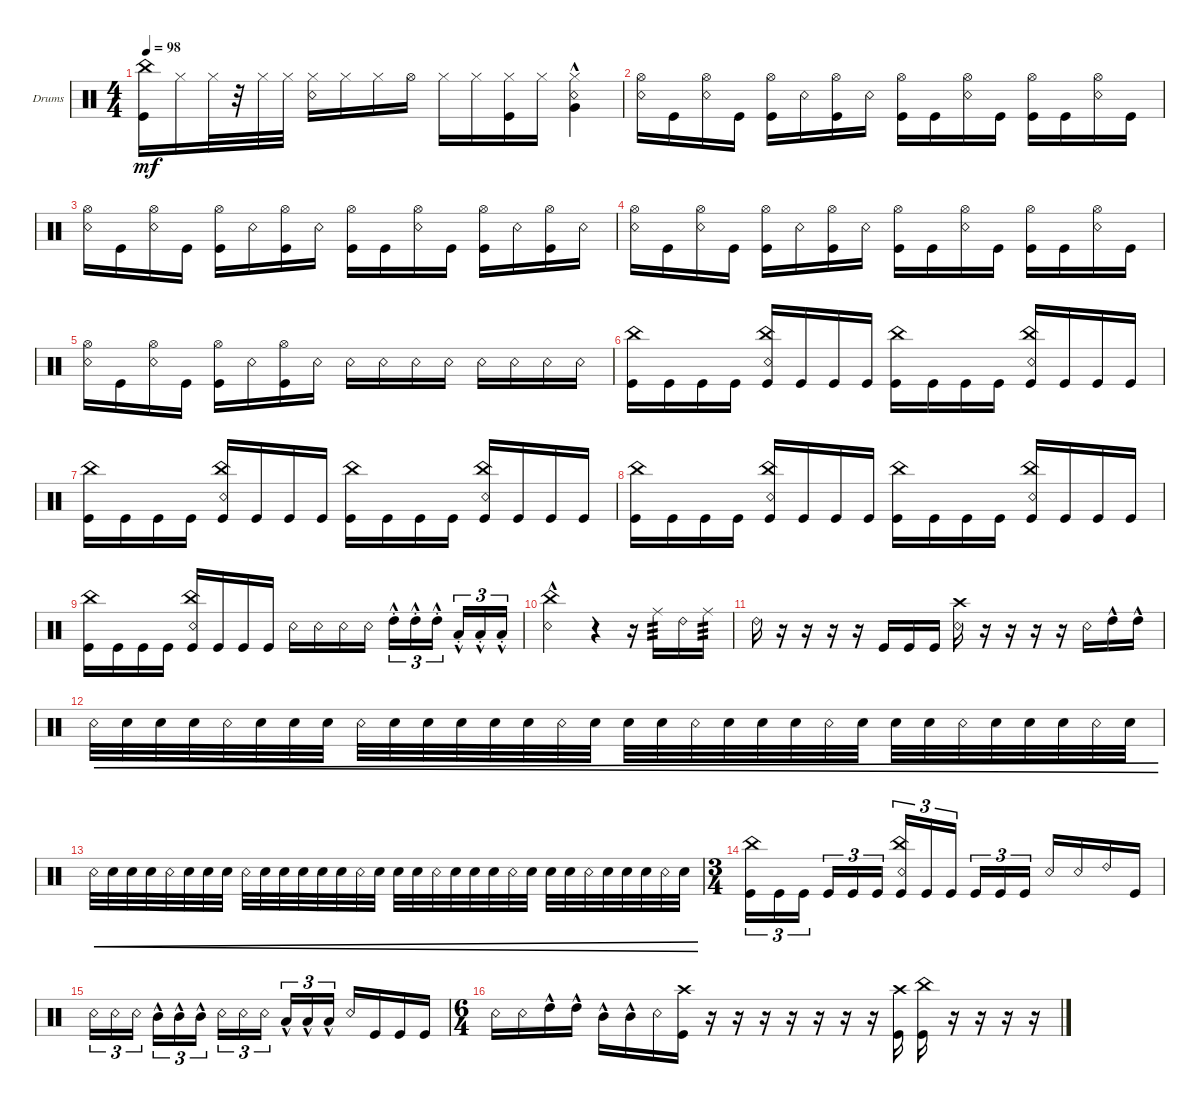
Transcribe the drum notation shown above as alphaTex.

\defaultSystemsLayout 4
\bracketExtendMode groupsimilarinstruments
\firstSystemTrackNameOrientation horizontal
\otherSystemsTrackNameOrientation horizontal
\track ("Drumkit" "Drums") {instrument percussion}
\staff {score}
\articulation defaults
\ts (4 4)
\tempo 98
\clef neutral
\scale
0.333333
\ks c
("Kick (hit)" "China (hit)").16{dy mf} "Hi-Hat (closed)".16 "Hi-Hat (closed)".32 r.32 "Hi-Hat (closed)".32 "Hi-Hat (closed)".32 ("Hi-Hat (closed)" "Snare (rim shot)").16 "Hi-Hat (closed)".16 "Hi-Hat (closed)".16 "Hi-Hat (open)".16 "Hi-Hat (closed)".16 "Hi-Hat (closed)".16 ("Hi-Hat (closed)" "Kick (hit)").16 "Hi-Hat (closed)".16 ("Hi-Hat (closed)" "Snare (rim shot)" "Very Low Tom (hit)"{hac}).4 |
\scale
0.333333 ("Snare (rim shot)" "Hi-Hat (open)").16 "Kick (hit)".16 ("Snare (rim shot)" "Hi-Hat (open)").16 "Kick (hit)".16 ("Kick (hit)" "Hi-Hat (open)").16 "Snare (rim shot)".16 ("Kick (hit)" "Hi-Hat (open)").16 "Snare (rim shot)".16 ("Kick (hit)" "Hi-Hat (open)").16 "Kick (hit)".16 ("Snare (rim shot)" "Hi-Hat (open)").16 "Kick (hit)".16 ("Kick (hit)" "Hi-Hat (open)").16 "Kick (hit)".16 ("Snare (rim shot)" "Hi-Hat (open)").16 "Kick (hit)".16 |
\scale
0.333333 ("Snare (rim shot)" "Hi-Hat (open)").16 "Kick (hit)".16 ("Snare (rim shot)" "Hi-Hat (open)").16 "Kick (hit)".16 ("Kick (hit)" "Hi-Hat (open)").16 "Snare (rim shot)".16 ("Kick (hit)" "Hi-Hat (open)").16 "Snare (rim shot)".16 ("Kick (hit)" "Hi-Hat (open)").16 "Kick (hit)".16 ("Snare (rim shot)" "Hi-Hat (open)").16 "Kick (hit)".16 ("Kick (hit)" "Hi-Hat (open)").16 "Snare (rim shot)".16 ("Kick (hit)" "Hi-Hat (open)").16 "Snare (rim shot)".16 |
\scale
0.333333 ("Snare (rim shot)" "Hi-Hat (open)").16 "Kick (hit)".16 ("Snare (rim shot)" "Hi-Hat (open)").16 "Kick (hit)".16 ("Kick (hit)" "Hi-Hat (open)").16 "Snare (rim shot)".16 ("Kick (hit)" "Hi-Hat (open)").16 "Snare (rim shot)".16 ("Kick (hit)" "Hi-Hat (open)").16 "Kick (hit)".16 ("Snare (rim shot)" "Hi-Hat (open)").16 "Kick (hit)".16 ("Kick (hit)" "Hi-Hat (open)").16 "Kick (hit)".16 ("Snare (rim shot)" "Hi-Hat (open)").16 "Kick (hit)".16 |
\scale
0.333333 ("Snare (rim shot)" "Hi-Hat (open)").16 "Kick (hit)".16 ("Snare (rim shot)" "Hi-Hat (open)").16 "Kick (hit)".16 ("Kick (hit)" "Hi-Hat (open)").16 "Snare (rim shot)".16 ("Kick (hit)" "Hi-Hat (open)").16 "Snare (rim shot)".16 "Snare (rim shot)".16 "Snare (rim shot)".16 "Snare (rim shot)".16 "Snare (rim shot)".16 "Snare (rim shot)".16 "Snare (rim shot)".16 "Snare (rim shot)".16 "Snare (rim shot)".16 |
\scale
0.333333 ("Kick (hit)" "China (hit)").16 "Kick (hit)".16 "Kick (hit)".16 "Kick (hit)".16 ("Kick (hit)" "China (hit)" "Snare (rim shot)").16 "Kick (hit)".16 "Kick (hit)".16 "Kick (hit)".16 ("Kick (hit)" "China (hit)").16 "Kick (hit)".16 "Kick (hit)".16 "Kick (hit)".16 ("Kick (hit)" "Snare (rim shot)" "China (hit)").16 "Kick (hit)".16 "Kick (hit)".16 "Kick (hit)".16 |
\scale
0.333333 ("Kick (hit)" "China (hit)").16 "Kick (hit)".16 "Kick (hit)".16 "Kick (hit)".16 ("Kick (hit)" "China (hit)" "Snare (rim shot)").16 "Kick (hit)".16 "Kick (hit)".16 "Kick (hit)".16 ("Kick (hit)" "China (hit)").16 "Kick (hit)".16 "Kick (hit)".16 "Kick (hit)".16 ("Kick (hit)" "Snare (rim shot)" "China (hit)").16 "Kick (hit)".16 "Kick (hit)".16 "Kick (hit)".16 |
\scale
0.333333 ("Kick (hit)" "China (hit)").16 "Kick (hit)".16 "Kick (hit)".16 "Kick (hit)".16 ("Kick (hit)" "China (hit)" "Snare (rim shot)").16 "Kick (hit)".16 "Kick (hit)".16 "Kick (hit)".16 ("Kick (hit)" "China (hit)").16 "Kick (hit)".16 "Kick (hit)".16 "Kick (hit)".16 ("Kick (hit)" "Snare (rim shot)" "China (hit)").16 "Kick (hit)".16 "Kick (hit)".16 "Kick (hit)".16 |
\scale
0.333333 ("Kick (hit)" "China (hit)").16 "Kick (hit)".16 "Kick (hit)".16 "Kick (hit)".16 ("Kick (hit)" "China (hit)" "Snare (rim shot)").16 "Kick (hit)".16 "Kick (hit)".16 "Kick (hit)".16 "Snare (rim shot)".16 "Snare (rim shot)".16 "Snare (rim shot)".16 "Snare (rim shot)".16 "High Tom (hit)"{hac st}.16{tu (3 2)} "High Tom (hit)"{hac st}.16{tu (3 2)} "High Tom (hit)"{hac st}.16{tu (3 2)} "Low Tom (hit)"{hac st}.16{tu (3 2)} "Low Tom (hit)"{hac st}.16{tu (3 2)} "Low Tom (hit)"{hac st}.16{tu (3 2)} |
\scale
0.333333 ("Snare (rim shot)"{hac} "China (hit)").2 r.4 r.16 "Ride (middle)".16{tp 3} "Ride (bell) 2".16 "Ride (middle)".16{tp 3} |
\scale
0.333333 "Ride (bell) 2".16 r.16 r.16 r.16 r.16 "Kick (hit)".16 "Kick (hit)".16 "Kick (hit)".16 ("Snare (rim shot)" "Crash high (hit)").16 r.16 r.16 r.16 r.16 "Snare (rim shot)".16 "High Tom (hit)"{hac}.16 "High Tom (hit)"{hac}.16 |
"Snare (rim shot)".32{cre} "Snare (hit) 2".32{cre} "Snare (hit) 2".32{cre} "Snare (hit) 2".32{cre} "Snare (rim shot)".32{cre} "Snare (hit) 2".32{cre} "Snare (hit) 2".32{cre} "Snare (hit) 2".32{cre} "Snare (rim shot)".32{cre} "Snare (hit) 2".32{cre} "Snare (hit) 2".32{cre} "Snare (hit) 2".32{cre} "Snare (hit) 2".32{cre} "Snare (hit) 2".32{cre} "Snare (rim shot)".32{cre} "Snare (hit) 2".32{cre} "Snare (hit) 2".32{cre} "Snare (hit) 2".32{cre} "Snare (rim shot)".32{cre} "Snare (hit) 2".32{cre} "Snare (hit) 2".32{cre} "Snare (hit) 2".32{cre} "Snare (rim shot)".32{cre} "Snare (hit) 2".32{cre} "Snare (hit) 2".32{cre} "Snare (hit) 2".32{cre} "Snare (rim shot)".32{cre} "Snare (hit) 2".32{cre} "Snare (hit) 2".32{cre} "Snare (hit) 2".32{cre} "Snare (rim shot)".32{cre} "Snare (hit) 2".32{cre} |
"Snare (rim shot)".32{cre} "Snare (hit) 2".32{cre} "Snare (hit) 2".32{cre} "Snare (hit) 2".32{cre} "Snare (rim shot)".32{cre} "Snare (hit) 2".32{cre} "Snare (hit) 2".32{cre} "Snare (hit) 2".32{cre} "Snare (rim shot)".32{cre} "Snare (hit) 2".32{cre} "Snare (hit) 2".32{cre} "Snare (hit) 2".32{cre} "Snare (hit) 2".32{cre} "Snare (hit) 2".32{cre} "Snare (rim shot)".32{cre} "Snare (hit) 2".32{cre} "Snare (hit) 2".32{cre} "Snare (hit) 2".32{cre} "Snare (rim shot)".32{cre} "Snare (hit) 2".32{cre} "Snare (hit) 2".32{cre} "Snare (hit) 2".32{cre} "Snare (rim shot)".32{cre} "Snare (hit) 2".32{cre} "Snare (hit) 2".32{cre} "Snare (hit) 2".32{cre} "Snare (rim shot)".32{cre} "Snare (hit) 2".32{cre} "Snare (hit) 2".32{cre} "Snare (hit) 2".32{cre} "Snare (rim shot)".32{cre} "Snare (hit) 2".32{cre} |
\ts (3 4)
\scale
0.333333 ("Kick (hit)" "China (hit)").16{tu (3 2)} "Kick (hit)".16{tu (3 2)} "Kick (hit)".16{tu (3 2)} "Kick (hit)".16{tu (3 2)} "Kick (hit)".16{tu (3 2)} "Kick (hit)".16{tu (3 2)} ("Kick (hit)" "China (hit)" "Snare (rim shot)").16{tu (3 2)} "Kick (hit)".16{tu (3 2)} "Kick (hit)".16{tu (3 2)} "Kick (hit)".16{tu (3 2)} "Kick (hit)".16{tu (3 2)} "Kick (hit)".16{tu (3 2)} "Snare (rim shot)".16 "Snare (rim shot)".16 "Ride (bell) 2".16 "Kick (hit)".16 |
\scale
0.333333 "Snare (rim shot)".16{tu (3 2)} "Snare (rim shot)".16{tu (3 2)} "Snare (rim shot)".16{tu (3 2)} "Mid Tom (hit)"{hac}.16{tu (3 2)} "Mid Tom (hit)"{hac}.16{tu (3 2)} "Mid Tom (hit)"{hac}.16{tu (3 2)} "Snare (rim shot)".16{tu (3 2)} "Snare (rim shot)".16{tu (3 2)} "Snare (rim shot)".16{tu (3 2)} "Low Tom (hit)"{hac}.16{tu (3 2)} "Low Tom (hit)"{hac}.16{tu (3 2)} "Low Tom (hit)"{hac}.16{tu (3 2)} "Snare (rim shot)".16 "Kick (hit)".16 "Kick (hit)".16 "Kick (hit)".16 |
\ts (6 4)
\scale
0.333333 "Snare (rim shot)".16 "Snare (rim shot)".16 "High Tom (hit)"{hac}.16 "High Tom (hit)"{hac}.16 "Mid Tom (hit)"{hac}.16 "Mid Tom (hit)"{hac}.16 "Snare (rim shot)".16 ("Crash high (hit)" "Kick (hit)").16 r.16 r.16 r.16 r.16 r.16 r.16 r.16 ("Kick (hit)" "Crash high (hit)").16 ("Kick (hit)" "China (hit)").16 r.16 r.16 r.16 r.16
